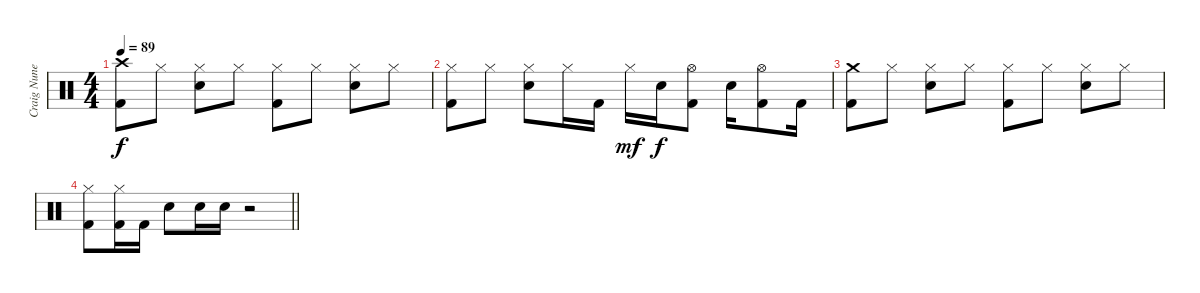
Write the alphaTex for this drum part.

\track ("Craig Nunenmacher" "Craig Nune") {instrument percussion}
\staff {score}
\articulation defaults
\ts (4 4)
\tempo 89
\clef neutral
\ks c
("Crash high (hit)" "Kick (hit) 2").8{dy f} "Hi-Hat (closed)".8 ("Hi-Hat (closed)" "Snare (hit) 2").8 "Hi-Hat (closed)".8 ("Hi-Hat (closed)" "Kick (hit) 2").8 "Hi-Hat (closed)".8 ("Hi-Hat (closed)" "Snare (hit) 2").8 "Hi-Hat (closed)".8 |
("Hi-Hat (closed)" "Kick (hit) 2").8 "Hi-Hat (closed)".8 ("Hi-Hat (closed)" "Snare (hit) 2").8 "Hi-Hat (closed)".16 "Kick (hit) 2".16 "Hi-Hat (closed)".16{dy mf} "Snare (hit) 2".16{dy f} ("Hi-Hat (open)" "Kick (hit) 2").8 "Snare (hit) 2".16 ("Hi-Hat (open)" "Kick (hit) 2").8 "Kick (hit) 2".16 |
("Crash medium (hit)" "Kick (hit) 2").8 "Hi-Hat (closed)".8 ("Hi-Hat (closed)" "Snare (hit) 2").8 "Hi-Hat (closed)".8 ("Hi-Hat (closed)" "Kick (hit) 2").8 "Hi-Hat (closed)".8 ("Hi-Hat (closed)" "Snare (hit) 2").8 "Hi-Hat (closed)".8 |
\barLineRight lightlight
("Hi-Hat (closed)" "Kick (hit) 2").8 ("Hi-Hat (closed)" "Kick (hit) 2").16 "Kick (hit) 2".16 "Snare (hit) 2".8 "Snare (hit) 2".16 "Snare (hit) 2".16 r.2
